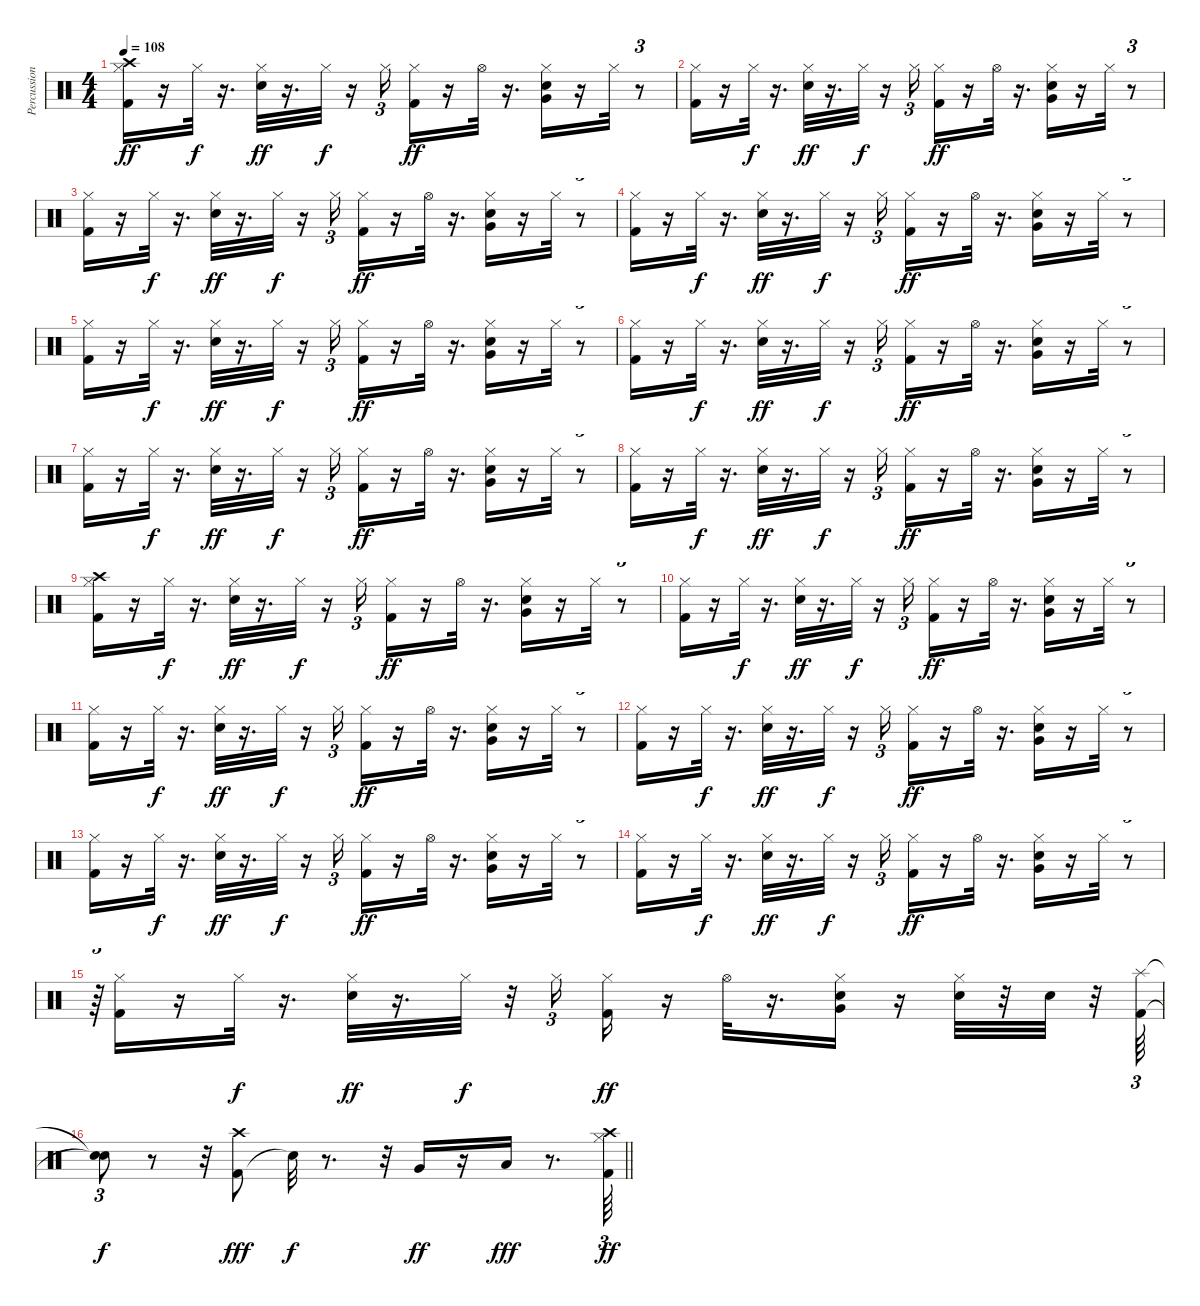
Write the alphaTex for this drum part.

\track ("Percussion" "Percussion") {instrument percussion}
\staff {score}
\articulation defaults
\ts (4 4)
\tempo 108
\clef neutral
\ks c
("Kick (hit) 2" "Hi-Hat (closed)" "Crash high (hit)").16{dy ff volume 12} r.16 "Hi-Hat (closed)".32{dy f} r.16{d} ("Snare (hit) 2" "Hi-Hat (closed)").32{dy ff} r.16{d} "Hi-Hat (closed)".32{dy f} r.16 "Hi-Hat (closed)".16{tu (3 2)} ("Hi-Hat (closed)" "Kick (hit) 2").16{dy ff} r.16 "Hi-Hat (open)".32 r.16{d} ("Snare (hit) 2" "Very Low Tom (hit)" "Hi-Hat (closed)").16 r.16 "Hi-Hat (closed)".32 r.8{tu (3 2)} |
("Kick (hit) 2" "Hi-Hat (closed)").16{volume 12} r.16 "Hi-Hat (closed)".32{dy f} r.16{d} ("Snare (hit) 2" "Hi-Hat (closed)").32{dy ff} r.16{d} "Hi-Hat (closed)".32{dy f} r.16 "Hi-Hat (closed)".16{tu (3 2)} ("Hi-Hat (closed)" "Kick (hit) 2").16{dy ff} r.16 "Hi-Hat (open)".32 r.16{d} ("Snare (hit) 2" "Very Low Tom (hit)" "Hi-Hat (closed)").16 r.16 "Hi-Hat (closed)".32 r.8{tu (3 2)} |
("Kick (hit) 2" "Hi-Hat (closed)").16{volume 12} r.16 "Hi-Hat (closed)".32{dy f} r.16{d} ("Snare (hit) 2" "Hi-Hat (closed)").32{dy ff} r.16{d} "Hi-Hat (closed)".32{dy f} r.16 "Hi-Hat (closed)".16{tu (3 2)} ("Hi-Hat (closed)" "Kick (hit) 2").16{dy ff} r.16 "Hi-Hat (open)".32 r.16{d} ("Snare (hit) 2" "Very Low Tom (hit)" "Hi-Hat (closed)").16 r.16 "Hi-Hat (closed)".32 r.8{tu (3 2)} |
("Kick (hit) 2" "Hi-Hat (closed)").16{volume 12} r.16 "Hi-Hat (closed)".32{dy f} r.16{d} ("Snare (hit) 2" "Hi-Hat (closed)").32{dy ff} r.16{d} "Hi-Hat (closed)".32{dy f} r.16 "Hi-Hat (closed)".16{tu (3 2)} ("Hi-Hat (closed)" "Kick (hit) 2").16{dy ff} r.16 "Hi-Hat (open)".32 r.16{d} ("Snare (hit) 2" "Very Low Tom (hit)" "Hi-Hat (closed)").16 r.16 "Hi-Hat (closed)".32 r.8{tu (3 2)} |
("Kick (hit) 2" "Hi-Hat (closed)").16{volume 12} r.16 "Hi-Hat (closed)".32{dy f} r.16{d} ("Snare (hit) 2" "Hi-Hat (closed)").32{dy ff} r.16{d} "Hi-Hat (closed)".32{dy f} r.16 "Hi-Hat (closed)".16{tu (3 2)} ("Hi-Hat (closed)" "Kick (hit) 2").16{dy ff} r.16 "Hi-Hat (open)".32 r.16{d} ("Snare (hit) 2" "Very Low Tom (hit)" "Hi-Hat (closed)").16 r.16 "Hi-Hat (closed)".32 r.8{tu (3 2)} |
("Kick (hit) 2" "Hi-Hat (closed)").16{volume 12} r.16 "Hi-Hat (closed)".32{dy f} r.16{d} ("Snare (hit) 2" "Hi-Hat (closed)").32{dy ff} r.16{d} "Hi-Hat (closed)".32{dy f} r.16 "Hi-Hat (closed)".16{tu (3 2)} ("Hi-Hat (closed)" "Kick (hit) 2").16{dy ff} r.16 "Hi-Hat (open)".32 r.16{d} ("Snare (hit) 2" "Very Low Tom (hit)" "Hi-Hat (closed)").16 r.16 "Hi-Hat (closed)".32 r.8{tu (3 2)} |
("Kick (hit) 2" "Hi-Hat (closed)").16{volume 12} r.16 "Hi-Hat (closed)".32{dy f} r.16{d} ("Snare (hit) 2" "Hi-Hat (closed)").32{dy ff} r.16{d} "Hi-Hat (closed)".32{dy f} r.16 "Hi-Hat (closed)".16{tu (3 2)} ("Hi-Hat (closed)" "Kick (hit) 2").16{dy ff} r.16 "Hi-Hat (open)".32 r.16{d} ("Snare (hit) 2" "Very Low Tom (hit)" "Hi-Hat (closed)").16 r.16 "Hi-Hat (closed)".32 r.8{tu (3 2)} |
("Kick (hit) 2" "Hi-Hat (closed)").16{volume 12} r.16 "Hi-Hat (closed)".32{dy f} r.16{d} ("Snare (hit) 2" "Hi-Hat (closed)").32{dy ff} r.16{d} "Hi-Hat (closed)".32{dy f} r.16 "Hi-Hat (closed)".16{tu (3 2)} ("Hi-Hat (closed)" "Kick (hit) 2").16{dy ff} r.16 "Hi-Hat (open)".32 r.16{d} ("Snare (hit) 2" "Very Low Tom (hit)" "Hi-Hat (closed)").16 r.16 "Hi-Hat (closed)".32 r.8{tu (3 2)} |
("Kick (hit) 2" "Hi-Hat (closed)" "Crash high (hit)").16{volume 12} r.16 "Hi-Hat (closed)".32{dy f} r.16{d} ("Snare (hit) 2" "Hi-Hat (closed)").32{dy ff} r.16{d} "Hi-Hat (closed)".32{dy f} r.16 "Hi-Hat (closed)".16{tu (3 2)} ("Hi-Hat (closed)" "Kick (hit) 2").16{dy ff} r.16 "Hi-Hat (open)".32 r.16{d} ("Snare (hit) 2" "Very Low Tom (hit)" "Hi-Hat (closed)").16 r.16 "Hi-Hat (closed)".32 r.8{tu (3 2)} |
("Kick (hit) 2" "Hi-Hat (closed)").16{volume 12} r.16 "Hi-Hat (closed)".32{dy f} r.16{d} ("Snare (hit) 2" "Hi-Hat (closed)").32{dy ff} r.16{d} "Hi-Hat (closed)".32{dy f} r.16 "Hi-Hat (closed)".16{tu (3 2)} ("Hi-Hat (closed)" "Kick (hit) 2").16{dy ff} r.16 "Hi-Hat (open)".32 r.16{d} ("Snare (hit) 2" "Very Low Tom (hit)" "Hi-Hat (closed)").16 r.16 "Hi-Hat (closed)".32 r.8{tu (3 2)} |
("Kick (hit) 2" "Hi-Hat (closed)").16{volume 12} r.16 "Hi-Hat (closed)".32{dy f} r.16{d} ("Snare (hit) 2" "Hi-Hat (closed)").32{dy ff} r.16{d} "Hi-Hat (closed)".32{dy f} r.16 "Hi-Hat (closed)".16{tu (3 2)} ("Hi-Hat (closed)" "Kick (hit) 2").16{dy ff} r.16 "Hi-Hat (open)".32 r.16{d} ("Snare (hit) 2" "Very Low Tom (hit)" "Hi-Hat (closed)").16 r.16 "Hi-Hat (closed)".32 r.8{tu (3 2)} |
("Kick (hit) 2" "Hi-Hat (closed)").16{volume 12} r.16 "Hi-Hat (closed)".32{dy f} r.16{d} ("Snare (hit) 2" "Hi-Hat (closed)").32{dy ff} r.16{d} "Hi-Hat (closed)".32{dy f} r.16 "Hi-Hat (closed)".16{tu (3 2)} ("Hi-Hat (closed)" "Kick (hit) 2").16{dy ff} r.16 "Hi-Hat (open)".32 r.16{d} ("Snare (hit) 2" "Very Low Tom (hit)" "Hi-Hat (closed)").16 r.16 "Hi-Hat (closed)".32 r.8{tu (3 2)} |
("Kick (hit) 2" "Hi-Hat (closed)").16{volume 12} r.16 "Hi-Hat (closed)".32{dy f} r.16{d} ("Snare (hit) 2" "Hi-Hat (closed)").32{dy ff} r.16{d} "Hi-Hat (closed)".32{dy f} r.16 "Hi-Hat (closed)".16{tu (3 2)} ("Hi-Hat (closed)" "Kick (hit) 2").16{dy ff} r.16 "Hi-Hat (open)".32 r.16{d} ("Snare (hit) 2" "Very Low Tom (hit)" "Hi-Hat (closed)").16 r.16 "Hi-Hat (closed)".32 r.8{tu (3 2)} |
("Kick (hit) 2" "Hi-Hat (closed)").16{volume 12} r.16 "Hi-Hat (closed)".32{dy f} r.16{d} ("Snare (hit) 2" "Hi-Hat (closed)").32{dy ff} r.16{d} "Hi-Hat (closed)".32{dy f} r.16 "Hi-Hat (closed)".16{tu (3 2)} ("Hi-Hat (closed)" "Kick (hit) 2").16{dy ff} r.16 "Hi-Hat (open)".32 r.16{d} ("Snare (hit) 2" "Very Low Tom (hit)" "Hi-Hat (closed)").16 r.16 "Hi-Hat (closed)".32 r.8{tu (3 2)} |
r.64{tu (3 2)} ("Kick (hit) 2" "Hi-Hat (closed)").16 r.16 "Hi-Hat (closed)".32{dy f} r.16{d} ("Snare (hit) 2" "Hi-Hat (closed)").32{dy ff} r.16{d} "Hi-Hat (closed)".32{dy f} r.32 "Hi-Hat (closed)".16{tu (3 2)} ("Hi-Hat (closed)" "Kick (hit) 2").16{dy ff} r.16 "Hi-Hat (open)".32 r.16{d} ("Snare (hit) 2" "Very Low Tom (hit)" "Hi-Hat (closed)").16 r.16 ("Snare (hit) 2" "Hi-Hat (closed)").32 r.32 "Snare (hit) 2".32 r.32 ("Kick (hit) 2" "Splash (hit)").64{tu (3 2)} |
\barLineRight lightlight
("Snare (hit)"{t} "Snare (hit)"{t}).8{tu (3 2) dy f} r.8 r.32 ("Kick (hit) 2" "Crash high (hit)").8{dy fff} "Snare (hit)"{t}.32{dy f} r.8{d} r.32 "Very Low Tom (hit)".16{dy ff} r.16 "Low Floor Tom (hit)".16{dy fff} r.8{d} ("Kick (hit) 2" "Hi-Hat (closed)" "Crash high (hit)").64{tu (3 2) dy ff volume 12}
